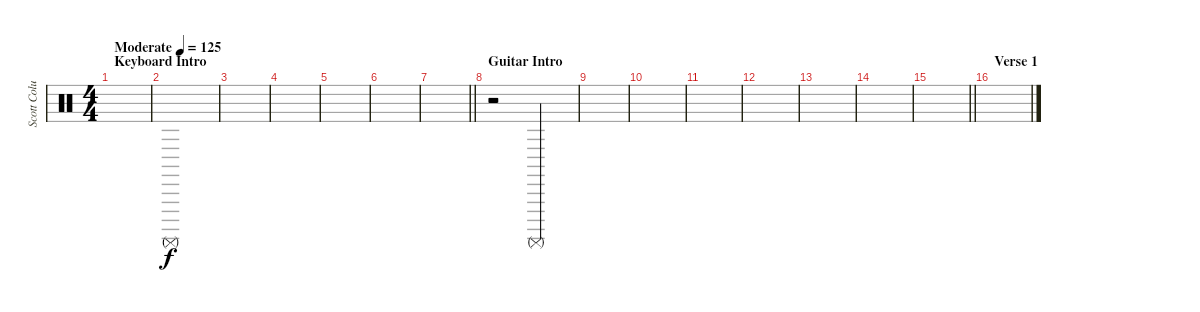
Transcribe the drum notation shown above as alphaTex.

\track ("Scott Columbus" "Scott Colu") {instrument percussion}
\staff {score}
\articulation defaults
\ts (4 4)
\section ("" "Keyboard Intro")
\tempo (125 "Moderate")
\clef neutral
\ks c
|
"Surdo (mute)".1 |
|
|
|
|
\barLineRight lightlight
|
\section ("" "Guitar Intro")
r.2 "Surdo (mute)".2 |
|
|
|
|
|
|
\barLineRight lightlight
|
\section ("" "Verse 1")
